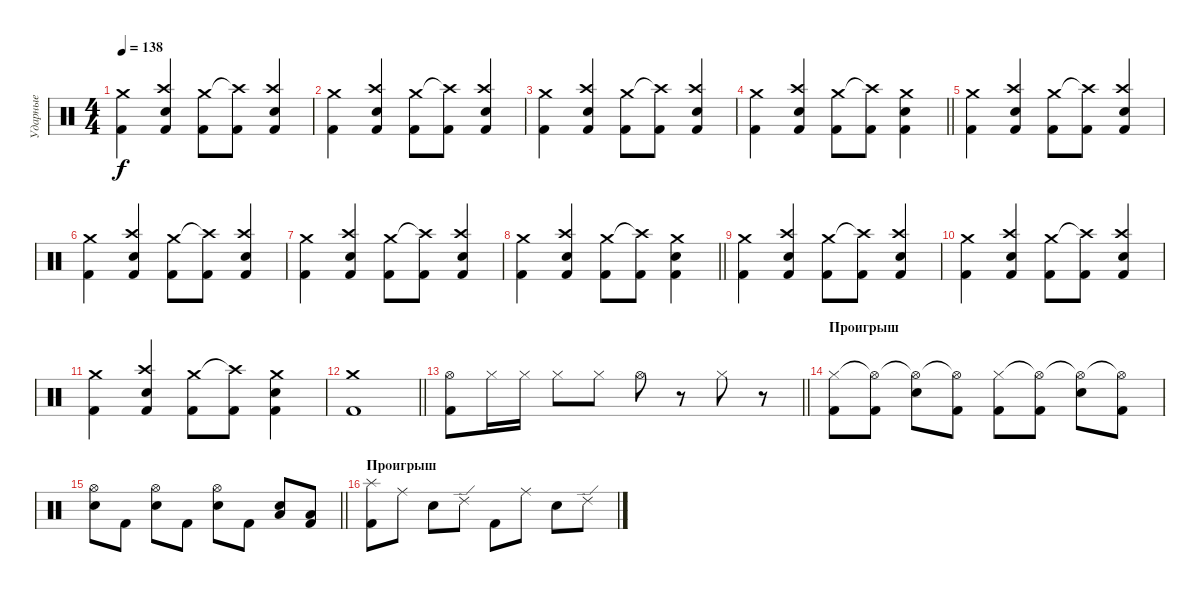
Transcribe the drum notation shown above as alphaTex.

\track ("Ударные" "Ударные") {instrument percussion}
\staff {score}
\articulation defaults
\ts (4 4)
\tempo 138
\clef neutral
\ks c
("Crash medium (hit)" "Kick (hit) 2").4{dy f} ("Crash high (hit)" "Snare (hit) 2" "Kick (hit) 2").4 ("Crash medium (hit)" "Kick (hit) 2").8 ("Crash high (hit)"{t} "Kick (hit) 2").8 ("Crash high (hit)" "Snare (hit) 2" "Kick (hit) 2").4 |
("Crash medium (hit)" "Kick (hit) 2").4 ("Crash high (hit)" "Snare (hit) 2" "Kick (hit) 2").4 ("Crash medium (hit)" "Kick (hit) 2").8 ("Crash high (hit)"{t} "Kick (hit) 2").8 ("Crash high (hit)" "Snare (hit) 2" "Kick (hit) 2").4 |
("Crash medium (hit)" "Kick (hit) 2").4 ("Crash high (hit)" "Snare (hit) 2" "Kick (hit) 2").4 ("Crash medium (hit)" "Kick (hit) 2").8 ("Crash high (hit)"{t} "Kick (hit) 2").8 ("Crash high (hit)" "Snare (hit) 2" "Kick (hit) 2").4 |
\barLineRight lightlight
("Crash medium (hit)" "Kick (hit) 2").4 ("Crash high (hit)" "Snare (hit) 2" "Kick (hit) 2").4 ("Crash medium (hit)" "Kick (hit) 2").8 ("Crash high (hit)"{t} "Kick (hit) 2").8 ("Crash medium (hit)" "Snare (hit) 2" "Kick (hit) 2").4 |
("Crash medium (hit)" "Kick (hit) 2").4 ("Crash high (hit)" "Snare (hit) 2" "Kick (hit) 2").4 ("Crash medium (hit)" "Kick (hit) 2").8 ("Crash high (hit)"{t} "Kick (hit) 2").8 ("Crash high (hit)" "Snare (hit) 2" "Kick (hit) 2").4 |
("Crash medium (hit)" "Kick (hit) 2").4 ("Crash high (hit)" "Snare (hit) 2" "Kick (hit) 2").4 ("Crash medium (hit)" "Kick (hit) 2").8 ("Crash high (hit)"{t} "Kick (hit) 2").8 ("Crash high (hit)" "Snare (hit) 2" "Kick (hit) 2").4 |
("Crash medium (hit)" "Kick (hit) 2").4 ("Crash high (hit)" "Snare (hit) 2" "Kick (hit) 2").4 ("Crash medium (hit)" "Kick (hit) 2").8 ("Crash high (hit)"{t} "Kick (hit) 2").8 ("Crash high (hit)" "Snare (hit) 2" "Kick (hit) 2").4 |
\barLineRight lightlight
("Crash medium (hit)" "Kick (hit) 2").4 ("Crash high (hit)" "Snare (hit) 2" "Kick (hit) 2").4 ("Crash medium (hit)" "Kick (hit) 2").8 ("Crash high (hit)"{t} "Kick (hit) 2").8 ("Crash medium (hit)" "Snare (hit) 2" "Kick (hit) 2").4 |
("Crash medium (hit)" "Kick (hit) 2").4 ("Crash high (hit)" "Snare (hit) 2" "Kick (hit) 2").4 ("Crash medium (hit)" "Kick (hit) 2").8 ("Crash high (hit)"{t} "Kick (hit) 2").8 ("Crash high (hit)" "Snare (hit) 2" "Kick (hit) 2").4 |
("Crash medium (hit)" "Kick (hit) 2").4 ("Crash high (hit)" "Snare (hit) 2" "Kick (hit) 2").4 ("Crash medium (hit)" "Kick (hit) 2").8 ("Crash high (hit)"{t} "Kick (hit) 2").8 ("Crash high (hit)" "Snare (hit) 2" "Kick (hit) 2").4 |
("Crash medium (hit)" "Kick (hit) 2").4 ("Crash high (hit)" "Snare (hit) 2" "Kick (hit) 2").4 ("Crash medium (hit)" "Kick (hit) 2").8 ("Crash high (hit)"{t} "Kick (hit) 2").8 ("Crash medium (hit)" "Snare (hit) 2" "Kick (hit) 2").4 |
\barLineRight lightlight
("Crash medium (hit)" "Kick (hit) 2").1 |
\barLineRight lightlight
("Hi-Hat (open)" "Kick (hit) 2").8 "Hi-Hat (closed)".16 "Hi-Hat (closed)".16 "Hi-Hat (closed)".8 "Hi-Hat (closed)".8 "Hi-Hat (open)".8 r.8 "Hi-Hat (closed)".8 r.8 |
\section ("" "Проигрыш")
("Hi-Hat (closed)" "Kick (hit) 2").8 ("Hi-Hat (open)"{t} "Kick (hit) 2").8 ("Hi-Hat (open)"{t} "Snare (hit) 2").8 ("Hi-Hat (open)"{t} "Kick (hit) 2").8 ("Hi-Hat (closed)" "Kick (hit) 2").8 ("Hi-Hat (open)"{t} "Kick (hit) 2").8 ("Hi-Hat (open)"{t} "Snare (hit) 2").8 ("Hi-Hat (open)"{t} "Kick (hit) 2").8 |
\barLineRight lightlight
("Hi-Hat (open)" "Snare (hit) 2").8 "Kick (hit) 2".8 ("Hi-Hat (open)" "Snare (hit) 2").8 "Kick (hit) 2".8 ("Hi-Hat (open)" "Snare (hit) 2").8 "Kick (hit) 2".8 ("Low Tom (hit)" "Snare (hit) 2").8 ("Low Floor Tom (hit)" "Kick (hit) 2").8 |
\section ("" "Проигрыш")
("Splash (hit)" "Kick (hit) 2").8 "Ride (middle)".8 "Snare (hit) 2".8 "Ride (edge) 2".8 "Kick (hit) 2".8 "Ride (middle)".8 "Snare (hit) 2".8 "Ride (edge) 2".8
